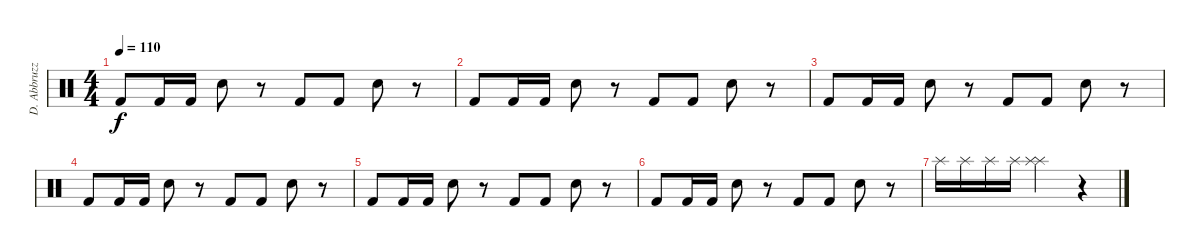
\track ("D. Abbruzzese" "D. Abbruzz") {instrument percussion}
\staff {score}
\articulation defaults
\ts (4 4)
\tempo 110
\clef neutral
\ks c "Kick (hit) 2".8{dy f} "Kick (hit) 2".16 "Kick (hit) 2".16 "Snare (hit) 2".8
r.8 "Kick (hit) 2".8 "Kick (hit) 2".8 "Snare (hit) 2".8 r.8 |
"Kick (hit) 2".8 "Kick (hit) 2".16 "Kick (hit) 2".16 "Snare (hit) 2".8 r.8 "Kick (hit) 2".8 "Kick (hit) 2".8 "Snare (hit) 2".8 r.8 |
"Kick (hit) 2".8 "Kick (hit) 2".16 "Kick (hit) 2".16 "Snare (hit) 2".8 r.8 "Kick (hit) 2".8 "Kick (hit) 2".8 "Snare (hit) 2".8 r.8 |
"Kick (hit) 2".8 "Kick (hit) 2".16 "Kick (hit) 2".16 "Snare (hit) 2".8 r.8 "Kick (hit) 2".8 "Kick (hit) 2".8 "Snare (hit) 2".8 r.8 |
"Kick (hit) 2".8 "Kick (hit) 2".16 "Kick (hit) 2".16 "Snare (hit) 2".8 r.8 "Kick (hit) 2".8 "Kick (hit) 2".8 "Snare (hit) 2".8 r.8 |
"Kick (hit) 2".8 "Kick (hit) 2".16 "Kick (hit) 2".16 "Snare (hit) 2".8 r.8 "Kick (hit) 2".8 "Kick (hit) 2".8 "Snare (hit) 2".8 r.8 |
"Splash (hit)".16 "Splash (hit)".16 "Splash (hit)".16 "Splash (hit)".16 ("Splash (hit)" "Splash (hit)").2 r.4
